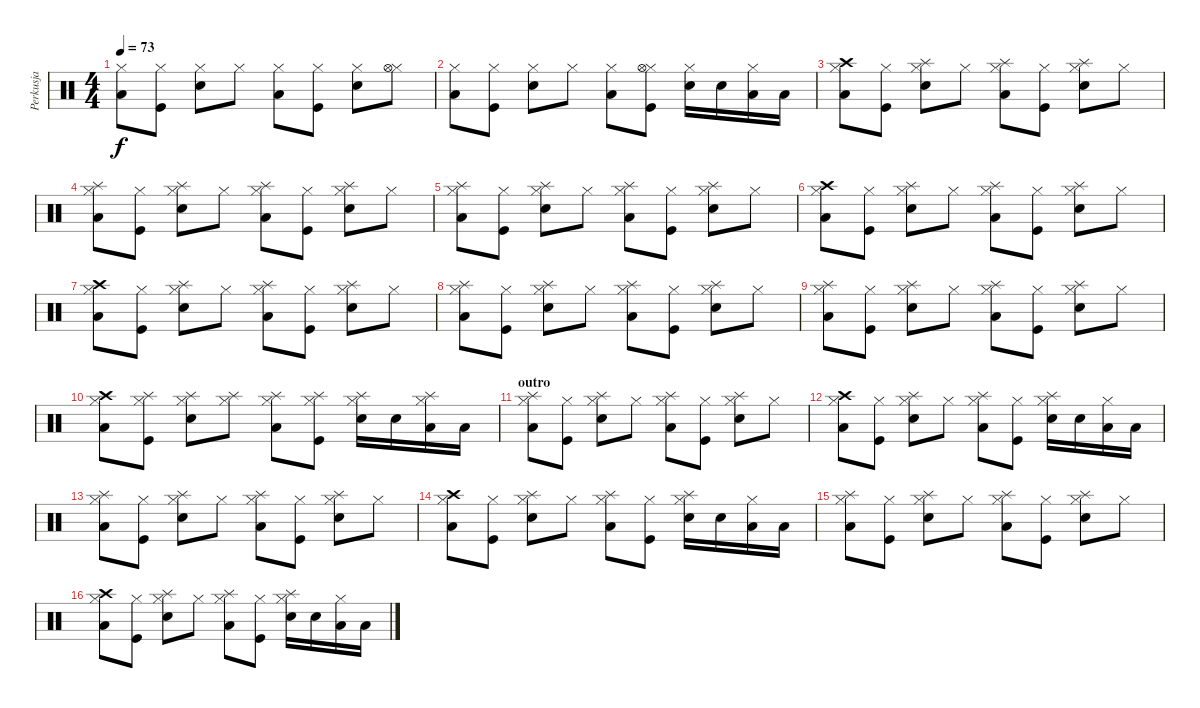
\track ("Perkusja" "Perkusja") {instrument percussion}
\staff {score}
\articulation defaults
\ts (4 4)
\tempo 73
\clef neutral
\ks c
("Hi-Hat (closed)" "Low Tom (hit)").8{dy f} ("Hi-Hat (closed)" "Kick (hit)").8 ("Hi-Hat (closed)" "Electric Snare (hit)").8 "Hi-Hat (closed)".8 ("Hi-Hat (closed)" "Low Tom (hit)").8 ("Hi-Hat (closed)" "Kick (hit)").8 ("Hi-Hat (closed)" "Electric Snare (hit)").8 ("Hi-Hat (closed)" "Hi-Hat (open)").8 |
("Hi-Hat (closed)" "Low Tom (hit)").8 ("Hi-Hat (closed)" "Kick (hit)").8 ("Hi-Hat (closed)" "Electric Snare (hit)").8 "Hi-Hat (closed)".8 ("Hi-Hat (closed)" "Low Tom (hit)").8 ("Hi-Hat (closed)" "Kick (hit)" "Hi-Hat (open)").8 ("Hi-Hat (closed)" "Electric Snare (hit)").16 "Electric Snare (hit)".16 ("Hi-Hat (closed)" "Low Tom (hit)").16 "Low Tom (hit)".16 |
("Hi-Hat (closed)" "Low Tom (hit)" "Crash high (hit)").8 ("Hi-Hat (closed)" "Kick (hit)").8 ("Hi-Hat (closed)" "Electric Snare (hit)" "Splash (hit)").8 "Hi-Hat (closed)".8 ("Hi-Hat (closed)" "Low Tom (hit)" "Splash (hit)").8 ("Hi-Hat (closed)" "Kick (hit)").8 ("Hi-Hat (closed)" "Electric Snare (hit)" "Splash (hit)").8 "Hi-Hat (closed)".8 |
("Hi-Hat (closed)" "Low Tom (hit)" "Splash (hit)").8 ("Hi-Hat (closed)" "Kick (hit)").8 ("Hi-Hat (closed)" "Electric Snare (hit)" "Splash (hit)").8 "Hi-Hat (closed)".8 ("Hi-Hat (closed)" "Low Tom (hit)" "Splash (hit)").8 ("Hi-Hat (closed)" "Kick (hit)").8 ("Hi-Hat (closed)" "Electric Snare (hit)" "Splash (hit)").8 "Hi-Hat (closed)".8 |
("Hi-Hat (closed)" "Low Tom (hit)" "Splash (hit)").8 ("Hi-Hat (closed)" "Kick (hit)").8 ("Hi-Hat (closed)" "Electric Snare (hit)" "Splash (hit)").8 "Hi-Hat (closed)".8 ("Hi-Hat (closed)" "Low Tom (hit)" "Splash (hit)").8 ("Hi-Hat (closed)" "Kick (hit)").8 ("Hi-Hat (closed)" "Electric Snare (hit)" "Splash (hit)").8 "Hi-Hat (closed)".8 |
("Hi-Hat (closed)" "Low Tom (hit)" "Crash high (hit)").8 ("Hi-Hat (closed)" "Kick (hit)").8 ("Hi-Hat (closed)" "Electric Snare (hit)" "Splash (hit)").8 "Hi-Hat (closed)".8 ("Hi-Hat (closed)" "Low Tom (hit)" "Splash (hit)").8 ("Hi-Hat (closed)" "Kick (hit)").8 ("Hi-Hat (closed)" "Electric Snare (hit)" "Splash (hit)").8 "Hi-Hat (closed)".8 |
("Hi-Hat (closed)" "Low Tom (hit)" "Crash high (hit)").8 ("Hi-Hat (closed)" "Kick (hit)").8 ("Hi-Hat (closed)" "Electric Snare (hit)" "Splash (hit)").8 "Hi-Hat (closed)".8 ("Hi-Hat (closed)" "Low Tom (hit)" "Splash (hit)").8 ("Hi-Hat (closed)" "Kick (hit)").8 ("Hi-Hat (closed)" "Electric Snare (hit)" "Splash (hit)").8 "Hi-Hat (closed)".8 |
("Hi-Hat (closed)" "Low Tom (hit)" "Splash (hit)").8 ("Hi-Hat (closed)" "Kick (hit)").8 ("Hi-Hat (closed)" "Electric Snare (hit)" "Splash (hit)").8 "Hi-Hat (closed)".8 ("Hi-Hat (closed)" "Low Tom (hit)" "Splash (hit)").8 ("Hi-Hat (closed)" "Kick (hit)").8 ("Hi-Hat (closed)" "Electric Snare (hit)" "Splash (hit)").8 "Hi-Hat (closed)".8 |
("Hi-Hat (closed)" "Low Tom (hit)" "Splash (hit)").8 ("Hi-Hat (closed)" "Kick (hit)").8 ("Hi-Hat (closed)" "Electric Snare (hit)" "Splash (hit)").8 "Hi-Hat (closed)".8 ("Hi-Hat (closed)" "Low Tom (hit)" "Splash (hit)").8 ("Hi-Hat (closed)" "Kick (hit)").8 ("Hi-Hat (closed)" "Electric Snare (hit)" "Splash (hit)").8 "Hi-Hat (closed)".8 |
("Hi-Hat (closed)" "Low Tom (hit)" "Crash high (hit)").8 ("Hi-Hat (closed)" "Kick (hit)" "Splash (hit)").8 ("Hi-Hat (closed)" "Electric Snare (hit)" "Splash (hit)").8 ("Hi-Hat (closed)" "Splash (hit)").8 ("Hi-Hat (closed)" "Low Tom (hit)" "Splash (hit)").8 ("Hi-Hat (closed)" "Kick (hit)" "Splash (hit)").8 ("Hi-Hat (closed)" "Electric Snare (hit)" "Splash (hit)").16 "Electric Snare (hit)".16 ("Hi-Hat (closed)" "Low Tom (hit)" "Splash (hit)").16 "Low Tom (hit)".16 |
\section ("" "outro")
("Hi-Hat (closed)" "Low Tom (hit)" "Splash (hit)").8 ("Hi-Hat (closed)" "Kick (hit)").8 ("Hi-Hat (closed)" "Electric Snare (hit)" "Splash (hit)").8 "Hi-Hat (closed)".8 ("Hi-Hat (closed)" "Low Tom (hit)" "Splash (hit)").8 ("Hi-Hat (closed)" "Kick (hit)").8 ("Hi-Hat (closed)" "Electric Snare (hit)" "Splash (hit)").8 "Hi-Hat (closed)".8 |
("Hi-Hat (closed)" "Low Tom (hit)" "Crash high (hit)").8 ("Hi-Hat (closed)" "Kick (hit)").8 ("Hi-Hat (closed)" "Electric Snare (hit)" "Splash (hit)").8 "Hi-Hat (closed)".8 ("Hi-Hat (closed)" "Low Tom (hit)" "Splash (hit)").8 ("Hi-Hat (closed)" "Kick (hit)").8 ("Hi-Hat (closed)" "Electric Snare (hit)" "Splash (hit)").16 "Electric Snare (hit)".16 ("Hi-Hat (closed)" "Low Tom (hit)").16 "Low Tom (hit)".16 |
("Hi-Hat (closed)" "Low Tom (hit)" "Splash (hit)").8 ("Hi-Hat (closed)" "Kick (hit)").8 ("Hi-Hat (closed)" "Electric Snare (hit)" "Splash (hit)").8 "Hi-Hat (closed)".8 ("Hi-Hat (closed)" "Low Tom (hit)" "Splash (hit)").8 ("Hi-Hat (closed)" "Kick (hit)").8 ("Hi-Hat (closed)" "Electric Snare (hit)" "Splash (hit)").8 "Hi-Hat (closed)".8 |
("Hi-Hat (closed)" "Low Tom (hit)" "Crash high (hit)").8 ("Hi-Hat (closed)" "Kick (hit)").8 ("Hi-Hat (closed)" "Electric Snare (hit)" "Splash (hit)").8 "Hi-Hat (closed)".8 ("Hi-Hat (closed)" "Low Tom (hit)" "Splash (hit)").8 ("Hi-Hat (closed)" "Kick (hit)").8 ("Hi-Hat (closed)" "Electric Snare (hit)" "Splash (hit)").16 "Electric Snare (hit)".16 ("Hi-Hat (closed)" "Low Tom (hit)").16 "Low Tom (hit)".16 |
("Hi-Hat (closed)" "Low Tom (hit)" "Splash (hit)").8 ("Hi-Hat (closed)" "Kick (hit)").8 ("Hi-Hat (closed)" "Electric Snare (hit)" "Splash (hit)").8 "Hi-Hat (closed)".8 ("Hi-Hat (closed)" "Low Tom (hit)" "Splash (hit)").8 ("Hi-Hat (closed)" "Kick (hit)").8 ("Hi-Hat (closed)" "Electric Snare (hit)" "Splash (hit)").8 "Hi-Hat (closed)".8 |
("Hi-Hat (closed)" "Low Tom (hit)" "Crash high (hit)").8 ("Hi-Hat (closed)" "Kick (hit)").8 ("Hi-Hat (closed)" "Electric Snare (hit)" "Splash (hit)").8 "Hi-Hat (closed)".8 ("Hi-Hat (closed)" "Low Tom (hit)" "Splash (hit)").8 ("Hi-Hat (closed)" "Kick (hit)").8 ("Hi-Hat (closed)" "Electric Snare (hit)" "Splash (hit)").16 "Electric Snare (hit)".16 ("Hi-Hat (closed)" "Low Tom (hit)").16 "Low Tom (hit)".16
